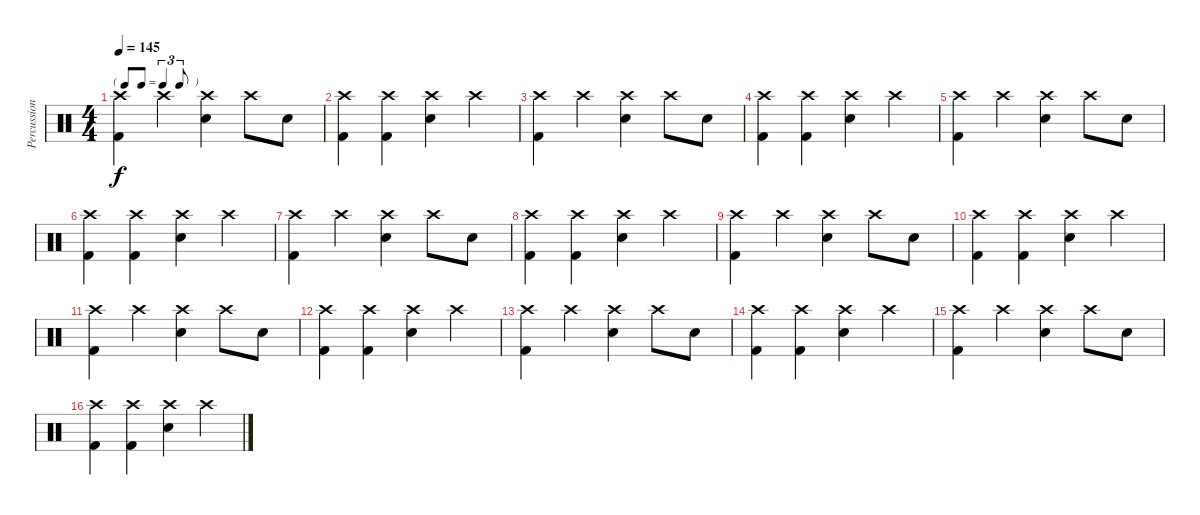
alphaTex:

\track ("Percussion" "Percussion") {instrument percussion}
\staff {score}
\articulation defaults
\ts (4 4)
\tf triplet8th
\tempo 145
\clef neutral
\ks c
("Crash high (hit)" "Kick (hit) 2").4{dy f} "Crash high (hit)".4 ("Crash high (hit)" "Electric Snare (hit)").4 "Crash high (hit)".8 "Electric Snare (hit)".8 |
("Crash high (hit)" "Kick (hit) 2").4 ("Crash high (hit)" "Kick (hit) 2").4 ("Crash high (hit)" "Electric Snare (hit)").4 "Crash high (hit)".4 |
("Crash high (hit)" "Kick (hit) 2").4 "Crash high (hit)".4 ("Crash high (hit)" "Electric Snare (hit)").4 "Crash high (hit)".8 "Electric Snare (hit)".8 |
("Crash high (hit)" "Kick (hit) 2").4 ("Crash high (hit)" "Kick (hit) 2").4 ("Crash high (hit)" "Electric Snare (hit)").4 "Crash high (hit)".4 |
("Crash high (hit)" "Kick (hit) 2").4 "Crash high (hit)".4 ("Crash high (hit)" "Electric Snare (hit)").4 "Crash high (hit)".8 "Electric Snare (hit)".8 |
("Crash high (hit)" "Kick (hit) 2").4 ("Crash high (hit)" "Kick (hit) 2").4 ("Crash high (hit)" "Electric Snare (hit)").4 "Crash high (hit)".4 |
("Crash high (hit)" "Kick (hit) 2").4 "Crash high (hit)".4 ("Crash high (hit)" "Electric Snare (hit)").4 "Crash high (hit)".8 "Electric Snare (hit)".8 |
("Crash high (hit)" "Kick (hit) 2").4 ("Crash high (hit)" "Kick (hit) 2").4 ("Crash high (hit)" "Electric Snare (hit)").4 "Crash high (hit)".4 |
("Crash high (hit)" "Kick (hit) 2").4 "Crash high (hit)".4 ("Crash high (hit)" "Electric Snare (hit)").4 "Crash high (hit)".8 "Electric Snare (hit)".8 |
("Crash high (hit)" "Kick (hit) 2").4 ("Crash high (hit)" "Kick (hit) 2").4 ("Crash high (hit)" "Electric Snare (hit)").4 "Crash high (hit)".4 |
("Crash high (hit)" "Kick (hit) 2").4 "Crash high (hit)".4 ("Crash high (hit)" "Electric Snare (hit)").4 "Crash high (hit)".8 "Electric Snare (hit)".8 |
("Crash high (hit)" "Kick (hit) 2").4 ("Crash high (hit)" "Kick (hit) 2").4 ("Crash high (hit)" "Electric Snare (hit)").4 "Crash high (hit)".4 |
("Crash high (hit)" "Kick (hit) 2").4 "Crash high (hit)".4 ("Crash high (hit)" "Electric Snare (hit)").4 "Crash high (hit)".8 "Electric Snare (hit)".8 |
("Crash high (hit)" "Kick (hit) 2").4 ("Crash high (hit)" "Kick (hit) 2").4 ("Crash high (hit)" "Electric Snare (hit)").4 "Crash high (hit)".4 |
("Crash high (hit)" "Kick (hit) 2").4 "Crash high (hit)".4 ("Crash high (hit)" "Electric Snare (hit)").4 "Crash high (hit)".8 "Electric Snare (hit)".8 |
("Crash high (hit)" "Kick (hit) 2").4 ("Crash high (hit)" "Kick (hit) 2").4 ("Crash high (hit)" "Electric Snare (hit)").4 "Crash high (hit)".4
